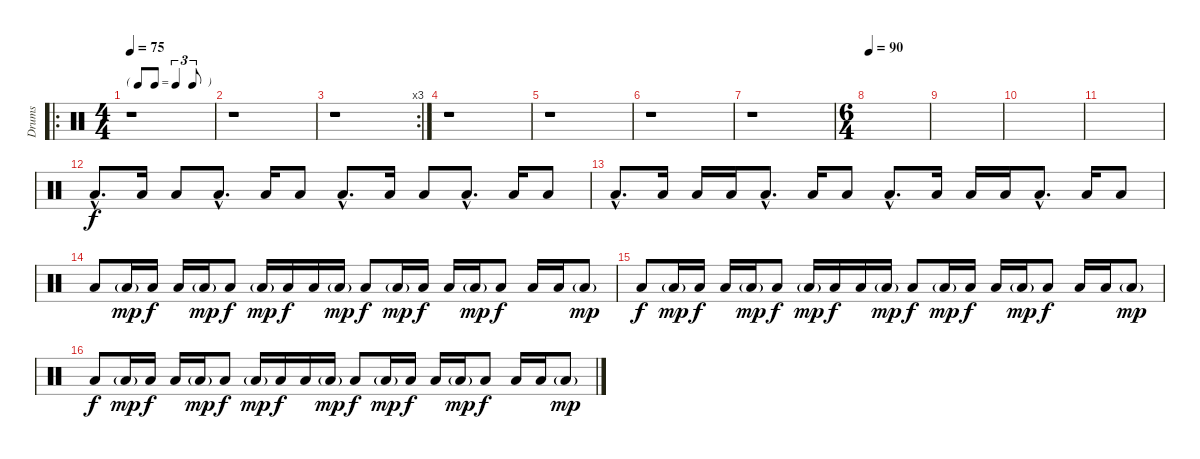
\track ("Drums" "Drums") {instrument percussion}
\staff {score}
\articulation defaults
\ro
\ts (4 4)
\tf triplet8th
\tempo 75
\clef neutral
\ks c
r.1{dy f} |
r.1 |
\rc 3
r.1 |
r.1 |
r.1 |
r.1 |
r.1 |
\ts (6 4)
\tempo 90
|
|
|
|
"Low Floor Tom (hit)"{hac}.8{d volume 15} "Low Floor Tom (hit)".16 "Low Tom (hit)".8 "Low Floor Tom (hit)"{hac}.8{d} "Low Floor Tom (hit)".16 "Low Tom (hit)".8 "Low Floor Tom (hit)"{hac}.8{d} "Low Floor Tom (hit)".16 "Low Tom (hit)".8 "Low Floor Tom (hit)"{hac}.8{d} "Low Floor Tom (hit)".16 "Low Tom (hit)".8 |
"Low Floor Tom (hit)"{hac}.8{d} "Low Floor Tom (hit)".16 "Low Tom (hit)".16 "Low Floor Tom (hit)".16 "Low Floor Tom (hit)"{hac}.8{d} "Low Floor Tom (hit)".16 "Low Tom (hit)".8 "Low Floor Tom (hit)"{hac}.8{d} "Low Floor Tom (hit)".16 "Low Tom (hit)".16 "Low Floor Tom (hit)".16 "Low Floor Tom (hit)"{hac}.8{d} "Low Floor Tom (hit)".16 "Low Tom (hit)".8 |
"Low Floor Tom (hit)".8 "Low Tom (hit)"{g}.16{dy mp} "Low Floor Tom (hit)".16{dy f} "Low Tom (hit)".16 "Low Floor Tom (hit)"{g}.16{dy mp} "Low Floor Tom (hit)".8{dy f} "Low Tom (hit)"{g}.16{dy mp} "Low Floor Tom (hit)".16{dy f} "Low Tom (hit)".16 "Low Floor Tom (hit)"{g}.16{dy mp} "Low Floor Tom (hit)".8{dy f} "Low Tom (hit)"{g}.16{dy mp} "Low Floor Tom (hit)".16{dy f} "Low Tom (hit)".16 "Low Floor Tom (hit)"{g}.16{dy mp} "Low Floor Tom (hit)".8{dy f} "Low Tom (hit)".16 "Low Floor Tom (hit)".16 "Low Tom (hit)"{g}.8{dy mp} |
"Low Floor Tom (hit)".8{dy f} "Low Tom (hit)"{g}.16{dy mp} "Low Floor Tom (hit)".16{dy f} "Low Tom (hit)".16 "Low Floor Tom (hit)"{g}.16{dy mp} "Low Floor Tom (hit)".8{dy f} "Low Tom (hit)"{g}.16{dy mp} "Low Floor Tom (hit)".16{dy f} "Low Tom (hit)".16 "Low Floor Tom (hit)"{g}.16{dy mp} "Low Floor Tom (hit)".8{dy f} "Low Tom (hit)"{g}.16{dy mp} "Low Floor Tom (hit)".16{dy f} "Low Tom (hit)".16 "Low Floor Tom (hit)"{g}.16{dy mp} "Low Floor Tom (hit)".8{dy f} "Low Tom (hit)".16 "Low Floor Tom (hit)".16 "Low Tom (hit)"{g}.8{dy mp} |
"Low Floor Tom (hit)".8{dy f} "Low Tom (hit)"{g}.16{dy mp} "Low Floor Tom (hit)".16{dy f} "Low Tom (hit)".16 "Low Floor Tom (hit)"{g}.16{dy mp} "Low Floor Tom (hit)".8{dy f} "Low Tom (hit)"{g}.16{dy mp} "Low Floor Tom (hit)".16{dy f} "Low Tom (hit)".16 "Low Floor Tom (hit)"{g}.16{dy mp} "Low Floor Tom (hit)".8{dy f} "Low Tom (hit)"{g}.16{dy mp} "Low Floor Tom (hit)".16{dy f} "Low Tom (hit)".16 "Low Floor Tom (hit)"{g}.16{dy mp} "Low Floor Tom (hit)".8{dy f} "Low Tom (hit)".16 "Low Floor Tom (hit)".16 "Low Tom (hit)"{g}.8{dy mp}
